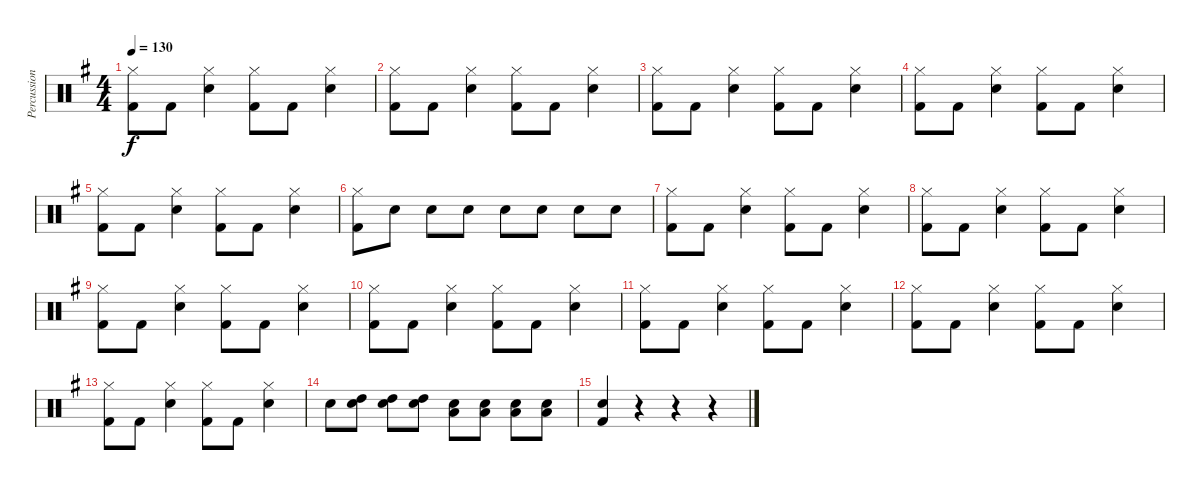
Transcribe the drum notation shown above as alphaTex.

\track ("Percussion" "Percussion") {instrument percussion}
\staff {score}
\articulation defaults
\ts (4 4)
\tempo 130
\clef neutral
\ks eminor
("Hi-Hat (closed)" "Kick (hit) 2").8{dy f} "Kick (hit) 2".8 ("Hi-Hat (closed)" "Snare (hit) 2").4 ("Hi-Hat (closed)" "Kick (hit) 2").8 "Kick (hit) 2".8 ("Hi-Hat (closed)" "Snare (hit) 2").4 |
("Hi-Hat (closed)" "Kick (hit) 2").8 "Kick (hit) 2".8 ("Hi-Hat (closed)" "Snare (hit) 2").4 ("Hi-Hat (closed)" "Kick (hit) 2").8 "Kick (hit) 2".8 ("Hi-Hat (closed)" "Snare (hit) 2").4 |
("Hi-Hat (closed)" "Kick (hit) 2").8 "Kick (hit) 2".8 ("Hi-Hat (closed)" "Snare (hit) 2").4 ("Hi-Hat (closed)" "Kick (hit) 2").8 "Kick (hit) 2".8 ("Hi-Hat (closed)" "Snare (hit) 2").4 |
("Hi-Hat (closed)" "Kick (hit) 2").8 "Kick (hit) 2".8 ("Hi-Hat (closed)" "Snare (hit) 2").4 ("Hi-Hat (closed)" "Kick (hit) 2").8 "Kick (hit) 2".8 ("Hi-Hat (closed)" "Snare (hit) 2").4 |
("Hi-Hat (closed)" "Kick (hit) 2").8 "Kick (hit) 2".8 ("Hi-Hat (closed)" "Snare (hit) 2").4 ("Hi-Hat (closed)" "Kick (hit) 2").8 "Kick (hit) 2".8 ("Hi-Hat (closed)" "Snare (hit) 2").4 |
("Hi-Hat (closed)" "Kick (hit) 2").8 "Snare (hit) 2".8 "Snare (hit) 2".8 "Snare (hit) 2".8 "Snare (hit) 2".8 "Snare (hit) 2".8 "Snare (hit) 2".8 "Snare (hit) 2".8 |
("Hi-Hat (closed)" "Kick (hit) 2").8 "Kick (hit) 2".8 ("Hi-Hat (closed)" "Snare (hit) 2").4 ("Hi-Hat (closed)" "Kick (hit) 2").8 "Kick (hit) 2".8 ("Hi-Hat (closed)" "Snare (hit) 2").4 |
("Hi-Hat (closed)" "Kick (hit) 2").8 "Kick (hit) 2".8 ("Hi-Hat (closed)" "Snare (hit) 2").4 ("Hi-Hat (closed)" "Kick (hit) 2").8 "Kick (hit) 2".8 ("Hi-Hat (closed)" "Snare (hit) 2").4 |
("Hi-Hat (closed)" "Kick (hit) 2").8 "Kick (hit) 2".8 ("Hi-Hat (closed)" "Snare (hit) 2").4 ("Hi-Hat (closed)" "Kick (hit) 2").8 "Kick (hit) 2".8 ("Hi-Hat (closed)" "Snare (hit) 2").4 |
("Hi-Hat (closed)" "Kick (hit) 2").8 "Kick (hit) 2".8 ("Hi-Hat (closed)" "Snare (hit) 2").4 ("Hi-Hat (closed)" "Kick (hit) 2").8 "Kick (hit) 2".8 ("Hi-Hat (closed)" "Snare (hit) 2").4 |
("Hi-Hat (closed)" "Kick (hit) 2").8 "Kick (hit) 2".8 ("Hi-Hat (closed)" "Snare (hit) 2").4 ("Hi-Hat (closed)" "Kick (hit) 2").8 "Kick (hit) 2".8 ("Hi-Hat (closed)" "Snare (hit) 2").4 |
("Hi-Hat (closed)" "Kick (hit) 2").8 "Kick (hit) 2".8 ("Hi-Hat (closed)" "Snare (hit) 2").4 ("Hi-Hat (closed)" "Kick (hit) 2").8 "Kick (hit) 2".8 ("Hi-Hat (closed)" "Snare (hit) 2").4 |
("Hi-Hat (closed)" "Kick (hit) 2").8 "Kick (hit) 2".8 ("Hi-Hat (closed)" "Snare (hit) 2").4 ("Hi-Hat (closed)" "Kick (hit) 2").8 "Kick (hit) 2".8 ("Hi-Hat (closed)" "Snare (hit) 2").4 |
"Snare (hit) 2".8 ("High Tom (hit)" "Snare (hit) 2").8 ("High Tom (hit)" "Snare (hit) 2").8 ("High Tom (hit)" "Snare (hit) 2").8 ("Low Floor Tom (hit)" "Snare (hit) 2").8 ("Low Floor Tom (hit)" "Snare (hit) 2").8 ("Low Floor Tom (hit)" "Snare (hit) 2").8 ("Low Floor Tom (hit)" "Snare (hit) 2").8 |
("Snare (hit) 2" "Kick (hit) 2").4 r.4 r.4 r.4
